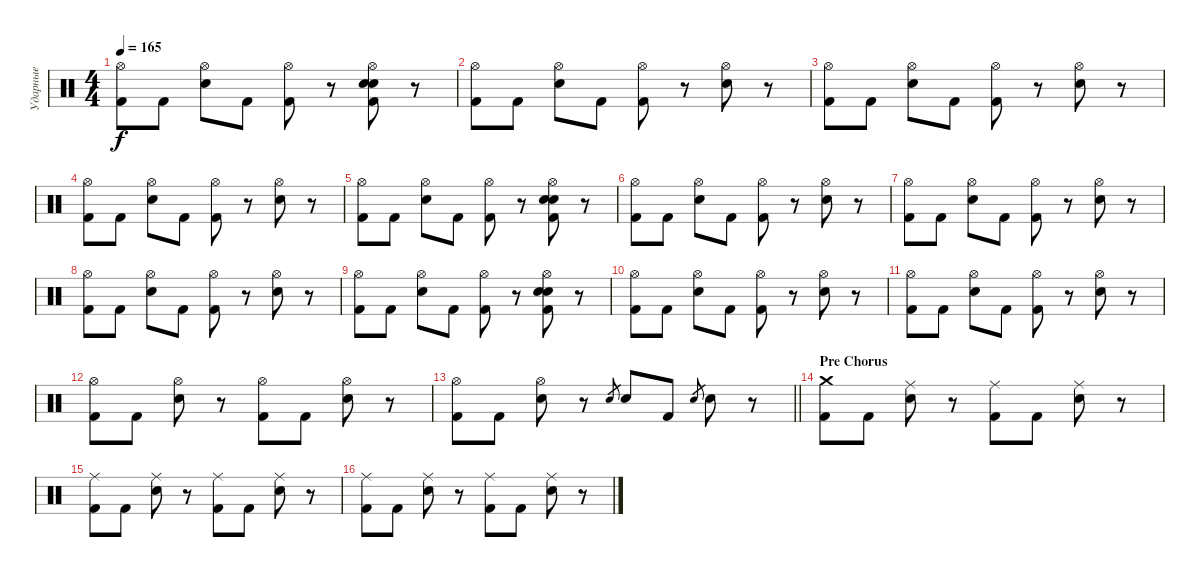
\track ("Ударные" "Ударные") {instrument percussion}
\staff {score}
\articulation defaults
\ts (4 4)
\tempo 165
\clef neutral
\ks c
("Hi-Hat (open)" "Kick (hit) 2").8{dy f} "Kick (hit) 2".8 ("Hi-Hat (open)" "Electric Snare (hit)").8 "Kick (hit) 2".8 ("Hi-Hat (open)" "Kick (hit) 2").8 r.8 ("Hi-Hat (open)" "Electric Snare (hit)" "Electric Snare (hit)" "Kick (hit) 2").8 r.8 |
("Hi-Hat (open)" "Kick (hit) 2").8 "Kick (hit) 2".8 ("Hi-Hat (open)" "Electric Snare (hit)").8 "Kick (hit) 2".8 ("Hi-Hat (open)" "Kick (hit) 2").8 r.8 ("Hi-Hat (open)" "Electric Snare (hit)").8 r.8 |
("Hi-Hat (open)" "Kick (hit) 2").8 "Kick (hit) 2".8 ("Hi-Hat (open)" "Electric Snare (hit)").8 "Kick (hit) 2".8 ("Hi-Hat (open)" "Kick (hit) 2").8 r.8 ("Hi-Hat (open)" "Electric Snare (hit)").8 r.8 |
("Hi-Hat (open)" "Kick (hit) 2").8 "Kick (hit) 2".8 ("Hi-Hat (open)" "Electric Snare (hit)").8 "Kick (hit) 2".8 ("Hi-Hat (open)" "Kick (hit) 2").8 r.8 ("Hi-Hat (open)" "Electric Snare (hit)").8 r.8 |
("Hi-Hat (open)" "Kick (hit) 2").8 "Kick (hit) 2".8 ("Hi-Hat (open)" "Electric Snare (hit)").8 "Kick (hit) 2".8 ("Hi-Hat (open)" "Kick (hit) 2").8 r.8 ("Hi-Hat (open)" "Electric Snare (hit)" "Electric Snare (hit)" "Kick (hit) 2").8 r.8 |
("Hi-Hat (open)" "Kick (hit) 2").8 "Kick (hit) 2".8 ("Hi-Hat (open)" "Electric Snare (hit)").8 "Kick (hit) 2".8 ("Hi-Hat (open)" "Kick (hit) 2").8 r.8 ("Hi-Hat (open)" "Electric Snare (hit)").8 r.8 |
("Hi-Hat (open)" "Kick (hit) 2").8 "Kick (hit) 2".8 ("Hi-Hat (open)" "Electric Snare (hit)").8 "Kick (hit) 2".8 ("Hi-Hat (open)" "Kick (hit) 2").8 r.8 ("Hi-Hat (open)" "Electric Snare (hit)").8 r.8 |
("Hi-Hat (open)" "Kick (hit) 2").8 "Kick (hit) 2".8 ("Hi-Hat (open)" "Electric Snare (hit)").8 "Kick (hit) 2".8 ("Hi-Hat (open)" "Kick (hit) 2").8 r.8 ("Hi-Hat (open)" "Electric Snare (hit)").8 r.8 |
("Hi-Hat (open)" "Kick (hit) 2").8 "Kick (hit) 2".8 ("Hi-Hat (open)" "Electric Snare (hit)").8 "Kick (hit) 2".8 ("Hi-Hat (open)" "Kick (hit) 2").8 r.8 ("Hi-Hat (open)" "Electric Snare (hit)" "Electric Snare (hit)" "Kick (hit) 2").8 r.8 |
("Hi-Hat (open)" "Kick (hit) 2").8 "Kick (hit) 2".8 ("Hi-Hat (open)" "Electric Snare (hit)").8 "Kick (hit) 2".8 ("Hi-Hat (open)" "Kick (hit) 2").8 r.8 ("Hi-Hat (open)" "Electric Snare (hit)").8 r.8 |
("Hi-Hat (open)" "Kick (hit) 2").8 "Kick (hit) 2".8 ("Hi-Hat (open)" "Electric Snare (hit)").8 "Kick (hit) 2".8 ("Hi-Hat (open)" "Kick (hit) 2").8 r.8 ("Hi-Hat (open)" "Electric Snare (hit)").8 r.8 |
("Hi-Hat (open)" "Kick (hit) 2").8 "Kick (hit) 2".8 ("Hi-Hat (open)" "Electric Snare (hit)").8 r.8 ("Hi-Hat (open)" "Kick (hit) 2").8 "Kick (hit) 2".8 ("Hi-Hat (open)" "Electric Snare (hit)").8 r.8 |
\barLineRight lightlight
("Hi-Hat (open)" "Kick (hit) 2").8 "Kick (hit) 2".8 ("Hi-Hat (open)" "Electric Snare (hit)").8 r.8 "Electric Snare (hit)".8{gr} "Electric Snare (hit)".8 "Kick (hit) 2".8 "Electric Snare (hit)".8{gr} "Electric Snare (hit)".8 r.8 |
\section ("" "Pre Chorus")
("Crash medium (hit)" "Kick (hit) 2").8 "Kick (hit) 2".8 ("Ride (middle)" "Electric Snare (hit)").8 r.8 ("Ride (middle)" "Kick (hit) 2").8 "Kick (hit) 2".8 ("Ride (middle)" "Electric Snare (hit)").8 r.8 |
("Ride (middle)" "Kick (hit) 2").8 "Kick (hit) 2".8 ("Ride (middle)" "Electric Snare (hit)").8 r.8 ("Ride (middle)" "Kick (hit) 2").8 "Kick (hit) 2".8 ("Ride (middle)" "Electric Snare (hit)").8 r.8 |
("Ride (middle)" "Kick (hit) 2").8 "Kick (hit) 2".8 ("Ride (middle)" "Electric Snare (hit)").8 r.8 ("Ride (middle)" "Kick (hit) 2").8 "Kick (hit) 2".8 ("Ride (middle)" "Electric Snare (hit)").8 r.8
